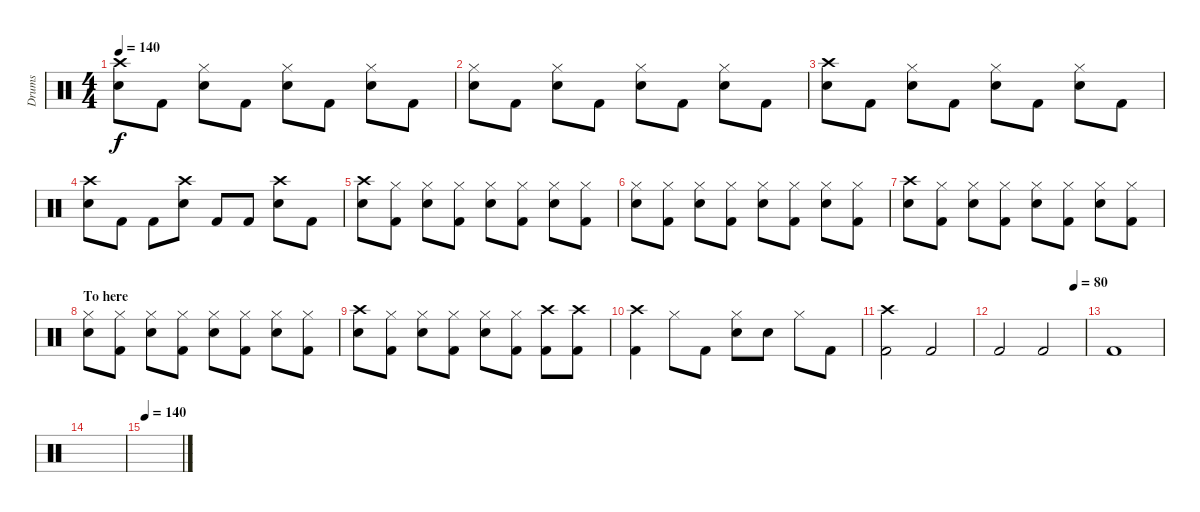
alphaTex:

\track ("Drums" "Drums") {instrument percussion}
\staff {score}
\articulation defaults
\ts (4 4)
\tempo 140
\clef neutral
\ks c
("Crash high (hit)" "Electric Snare (hit)").8{dy f} "Kick (hit) 2".8 ("Hi-Hat (closed)" "Electric Snare (hit)").8 "Kick (hit) 2".8 ("Hi-Hat (closed)" "Electric Snare (hit)").8 "Kick (hit) 2".8 ("Hi-Hat (closed)" "Electric Snare (hit)").8 "Kick (hit) 2".8 |
("Hi-Hat (closed)" "Electric Snare (hit)").8 "Kick (hit) 2".8 ("Hi-Hat (closed)" "Electric Snare (hit)").8 "Kick (hit) 2".8 ("Hi-Hat (closed)" "Electric Snare (hit)").8 "Kick (hit) 2".8 ("Hi-Hat (closed)" "Electric Snare (hit)").8 "Kick (hit) 2".8 |
("Crash high (hit)" "Electric Snare (hit)").8 "Kick (hit) 2".8 ("Hi-Hat (closed)" "Electric Snare (hit)").8 "Kick (hit) 2".8 ("Hi-Hat (closed)" "Electric Snare (hit)").8 "Kick (hit) 2".8 ("Hi-Hat (closed)" "Electric Snare (hit)").8 "Kick (hit) 2".8 |
("Crash high (hit)" "Electric Snare (hit)").8 "Kick (hit) 2".8 "Kick (hit) 2".8 ("Crash high (hit)" "Electric Snare (hit)").8 "Kick (hit) 2".8 "Kick (hit) 2".8 ("Crash high (hit)" "Electric Snare (hit)").8 "Kick (hit) 2".8 |
("Crash high (hit)" "Electric Snare (hit)").8 ("Hi-Hat (closed)" "Kick (hit) 2").8 ("Hi-Hat (closed)" "Electric Snare (hit)").8 ("Hi-Hat (closed)" "Kick (hit) 2").8 ("Hi-Hat (closed)" "Electric Snare (hit)").8 ("Hi-Hat (closed)" "Kick (hit) 2").8 ("Hi-Hat (closed)" "Electric Snare (hit)").8 ("Hi-Hat (closed)" "Kick (hit) 2").8 |
("Hi-Hat (closed)" "Electric Snare (hit)").8 ("Hi-Hat (closed)" "Kick (hit) 2").8 ("Hi-Hat (closed)" "Electric Snare (hit)").8 ("Hi-Hat (closed)" "Kick (hit) 2").8 ("Hi-Hat (closed)" "Electric Snare (hit)").8 ("Hi-Hat (closed)" "Kick (hit) 2").8 ("Hi-Hat (closed)" "Electric Snare (hit)").8 ("Hi-Hat (closed)" "Kick (hit) 2").8 |
("Crash high (hit)" "Electric Snare (hit)").8 ("Hi-Hat (closed)" "Kick (hit) 2").8 ("Hi-Hat (closed)" "Electric Snare (hit)").8 ("Hi-Hat (closed)" "Kick (hit) 2").8 ("Hi-Hat (closed)" "Electric Snare (hit)").8 ("Hi-Hat (closed)" "Kick (hit) 2").8 ("Hi-Hat (closed)" "Electric Snare (hit)").8 ("Hi-Hat (closed)" "Kick (hit) 2").8 |
\section ("" "To here")
("Hi-Hat (closed)" "Electric Snare (hit)").8 ("Hi-Hat (closed)" "Kick (hit) 2").8 ("Hi-Hat (closed)" "Electric Snare (hit)").8 ("Hi-Hat (closed)" "Kick (hit) 2").8 ("Hi-Hat (closed)" "Electric Snare (hit)").8 ("Hi-Hat (closed)" "Kick (hit) 2").8 ("Hi-Hat (closed)" "Electric Snare (hit)").8 ("Hi-Hat (closed)" "Kick (hit) 2").8 |
("Crash high (hit)" "Electric Snare (hit)").8 ("Hi-Hat (closed)" "Kick (hit) 2").8 ("Hi-Hat (closed)" "Electric Snare (hit)").8 ("Hi-Hat (closed)" "Kick (hit) 2").8 ("Hi-Hat (closed)" "Electric Snare (hit)").8 ("Hi-Hat (closed)" "Kick (hit) 2").8 ("Crash high (hit)" "Kick (hit) 2").8 ("Crash high (hit)" "Kick (hit) 2").8 |
("Crash high (hit)" "Kick (hit) 2").4 "Hi-Hat (closed)".8 "Kick (hit) 2".8 ("Hi-Hat (closed)" "Electric Snare (hit)").8 "Electric Snare (hit)".8 "Hi-Hat (closed)".8 "Kick (hit) 2".8 |
("Crash high (hit)" "Kick (hit) 2").2 "Kick (hit) 2".2 |
\tempo (80 0.875)
"Kick (hit) 2".2 "Kick (hit) 2".2 |
"Kick (hit) 2".1 |
|
\tempo 140
